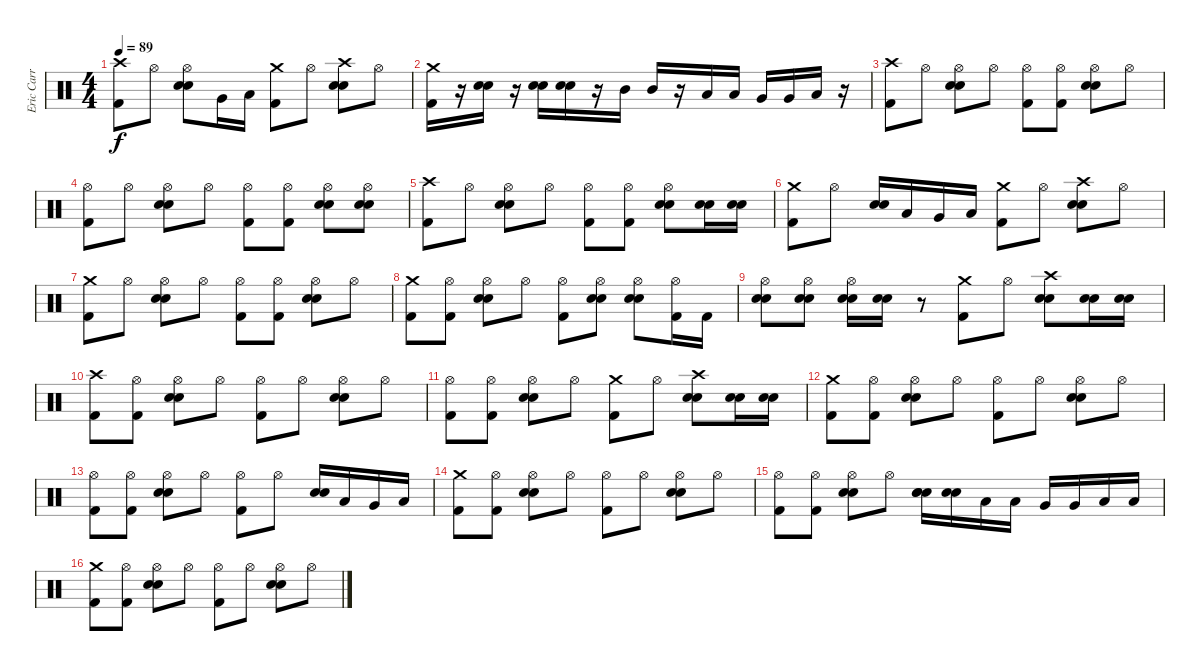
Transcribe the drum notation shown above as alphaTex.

\track ("Eric Carr (The Fox)" "Eric Carr ") {instrument percussion}
\staff {score}
\articulation defaults
\ts (4 4)
\tempo 89
\clef neutral
\ks c
("Crash high (hit)" "Kick (hit) 2").8{dy f} "Hi-Hat (open)".8 ("Electric Snare (hit)" "Hi-Hat (open)" "Snare (hit) 2").8 "Very Low Tom (hit)".16 "Low Floor Tom (hit)".16 ("Crash medium (hit)" "Kick (hit) 2").8 "Hi-Hat (open)".8 ("Electric Snare (hit)" "Crash high (hit)" "Snare (hit) 2").8 "Hi-Hat (open)".8 |
("Crash medium (hit)" "Kick (hit) 2").16 r.16 ("Electric Snare (hit)" "Snare (hit) 2").16 r.16 ("Electric Snare (hit)" "Snare (hit) 2").16 ("Electric Snare (hit)" "Snare (hit) 2").16 r.16 "Mid Tom (hit)".16 "Mid Tom (hit)".16 r.16 "Low Tom (hit)".16 "Low Tom (hit)".16 "Very Low Tom (hit)".16 "Very Low Tom (hit)".16 "Low Floor Tom (hit)".16 r.16 |
("Crash high (hit)" "Kick (hit) 2").8 "Hi-Hat (open)".8 ("Electric Snare (hit)" "Snare (hit) 2" "Hi-Hat (open)").8 "Hi-Hat (open)".8 ("Kick (hit) 2" "Hi-Hat (open)").8 ("Kick (hit) 2" "Hi-Hat (open)").8 ("Electric Snare (hit)" "Snare (hit) 2" "Hi-Hat (open)").8 "Hi-Hat (open)".8 |
("Kick (hit) 2" "Hi-Hat (open)").8 "Hi-Hat (open)".8 ("Electric Snare (hit)" "Snare (hit) 2" "Hi-Hat (open)").8 "Hi-Hat (open)".8 ("Kick (hit) 2" "Hi-Hat (open)").8 ("Kick (hit) 2" "Hi-Hat (open)").8 ("Electric Snare (hit)" "Snare (hit) 2" "Hi-Hat (open)").8 ("Electric Snare (hit)" "Snare (hit) 2" "Hi-Hat (open)").8 |
("Crash high (hit)" "Kick (hit) 2").8 "Hi-Hat (open)".8 ("Electric Snare (hit)" "Snare (hit) 2" "Hi-Hat (open)").8 "Hi-Hat (open)".8 ("Kick (hit) 2" "Hi-Hat (open)").8 ("Kick (hit) 2" "Hi-Hat (open)").8 ("Electric Snare (hit)" "Snare (hit) 2" "Hi-Hat (open)").8 ("Electric Snare (hit)" "Snare (hit) 2").16 ("Electric Snare (hit)" "Snare (hit) 2").16 |
("Crash medium (hit)" "Kick (hit) 2").8 "Hi-Hat (open)".8 ("Electric Snare (hit)" "Snare (hit) 2").16 "Low Tom (hit)".16 "Very Low Tom (hit)".16 "Low Floor Tom (hit)".16 ("Crash medium (hit)" "Kick (hit) 2").8 "Hi-Hat (open)".8 ("Electric Snare (hit)" "Crash high (hit)" "Snare (hit) 2").8 "Hi-Hat (open)".8 |
("Crash medium (hit)" "Kick (hit) 2").8 "Hi-Hat (open)".8 ("Electric Snare (hit)" "Hi-Hat (open)" "Snare (hit) 2").8 "Hi-Hat (open)".8 ("Hi-Hat (open)" "Kick (hit) 2").8 ("Hi-Hat (open)" "Kick (hit) 2").8 ("Electric Snare (hit)" "Hi-Hat (open)" "Snare (hit) 2").8 "Hi-Hat (open)".8 |
("Crash medium (hit)" "Kick (hit) 2").8 ("Kick (hit) 2" "Hi-Hat (open)").8 ("Electric Snare (hit)" "Snare (hit) 2" "Hi-Hat (open)").8 "Hi-Hat (open)".8 ("Kick (hit) 2" "Hi-Hat (open)").8 ("Electric Snare (hit)" "Snare (hit) 2" "Hi-Hat (open)").8 ("Electric Snare (hit)" "Snare (hit) 2" "Hi-Hat (open)").8 ("Kick (hit) 2" "Hi-Hat (open)").16 "Kick (hit) 2".16 |
("Electric Snare (hit)" "Snare (hit) 2" "Hi-Hat (open)").8 ("Electric Snare (hit)" "Snare (hit) 2" "Hi-Hat (open)").8 ("Electric Snare (hit)" "Snare (hit) 2" "Hi-Hat (open)").16 ("Electric Snare (hit)" "Snare (hit) 2").16 r.8 ("Crash medium (hit)" "Kick (hit) 2").8 "Hi-Hat (open)".8 ("Electric Snare (hit)" "Crash high (hit)" "Snare (hit) 2").8 ("Electric Snare (hit)" "Snare (hit) 2").16 ("Electric Snare (hit)" "Snare (hit) 2").16 |
("Crash high (hit)" "Kick (hit) 2").8 ("Kick (hit) 2" "Hi-Hat (open)").8 ("Electric Snare (hit)" "Snare (hit) 2" "Hi-Hat (open)").8 "Hi-Hat (open)".8 ("Kick (hit) 2" "Hi-Hat (open)").8 "Hi-Hat (open)".8 ("Electric Snare (hit)" "Snare (hit) 2" "Hi-Hat (open)").8 "Hi-Hat (open)".8 |
("Kick (hit) 2" "Hi-Hat (open)").8 ("Kick (hit) 2" "Hi-Hat (open)").8 ("Electric Snare (hit)" "Snare (hit) 2" "Hi-Hat (open)").8 "Hi-Hat (open)".8 ("Crash medium (hit)" "Kick (hit) 2").8 "Hi-Hat (open)".8 ("Electric Snare (hit)" "Crash high (hit)" "Snare (hit) 2").8 ("Electric Snare (hit)" "Snare (hit) 2").16 ("Electric Snare (hit)" "Snare (hit) 2").16 |
("Crash medium (hit)" "Kick (hit) 2").8 ("Kick (hit) 2" "Hi-Hat (open)").8 ("Electric Snare (hit)" "Snare (hit) 2" "Hi-Hat (open)").8 "Hi-Hat (open)".8 ("Kick (hit) 2" "Hi-Hat (open)").8 "Hi-Hat (open)".8 ("Electric Snare (hit)" "Snare (hit) 2" "Hi-Hat (open)").8 "Hi-Hat (open)".8 |
("Kick (hit) 2" "Hi-Hat (open)").8 ("Kick (hit) 2" "Hi-Hat (open)").8 ("Electric Snare (hit)" "Snare (hit) 2" "Hi-Hat (open)").8 "Hi-Hat (open)".8 ("Kick (hit) 2" "Hi-Hat (open)").8 "Hi-Hat (open)".8 ("Electric Snare (hit)" "Snare (hit) 2").16 "Low Tom (hit)".16 "Very Low Tom (hit)".16 "Low Floor Tom (hit)".16 |
("Crash medium (hit)" "Kick (hit) 2").8 ("Kick (hit) 2" "Hi-Hat (open)").8 ("Electric Snare (hit)" "Snare (hit) 2" "Hi-Hat (open)").8 "Hi-Hat (open)".8 ("Kick (hit) 2" "Hi-Hat (open)").8 "Hi-Hat (open)".8 ("Electric Snare (hit)" "Snare (hit) 2" "Hi-Hat (open)").8 "Hi-Hat (open)".8 |
("Kick (hit) 2" "Hi-Hat (open)").8 ("Kick (hit) 2" "Hi-Hat (open)").8 ("Electric Snare (hit)" "Snare (hit) 2" "Hi-Hat (open)").8 "Hi-Hat (open)".8 ("Electric Snare (hit)" "Electric Snare (hit)" "Snare (hit) 2").16 ("Electric Snare (hit)" "Snare (hit) 2").16 "Low Tom (hit)".16 "Low Tom (hit)".16 "Very Low Tom (hit)".16 "Very Low Tom (hit)".16 "Low Floor Tom (hit)".16 "Low Floor Tom (hit)".16 |
("Crash medium (hit)" "Kick (hit) 2").8 ("Kick (hit) 2" "Hi-Hat (open)").8 ("Electric Snare (hit)" "Snare (hit) 2" "Hi-Hat (open)").8 "Hi-Hat (open)".8 ("Kick (hit) 2" "Hi-Hat (open)").8 "Hi-Hat (open)".8 ("Electric Snare (hit)" "Snare (hit) 2" "Hi-Hat (open)").8 "Hi-Hat (open)".8
